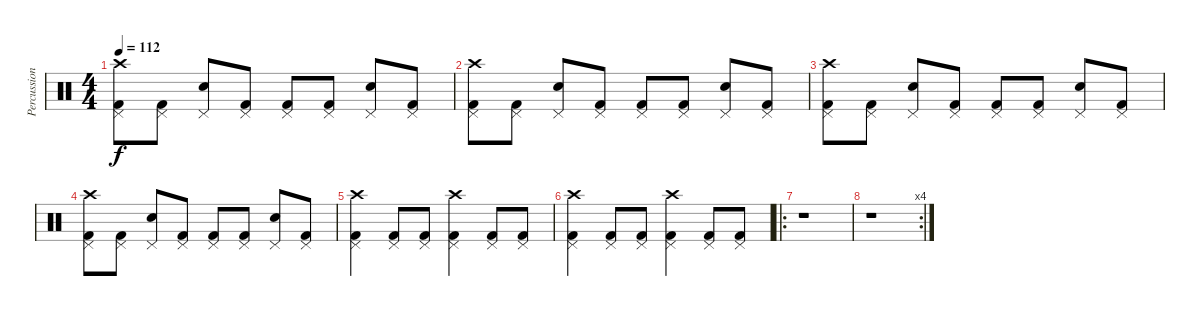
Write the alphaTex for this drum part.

\track ("Percussion" "Percussion") {instrument percussion}
\staff {score}
\articulation defaults
\ts (4 4)
\tempo 112
\clef neutral
\ks c
("Crash high (hit)" "Pedal Hi-Hat (hit)" "Kick (hit) 2").8{dy f} ("Pedal Hi-Hat (hit)" "Kick (hit) 2").8 ("Pedal Hi-Hat (hit)" "Snare (hit) 2").8 ("Pedal Hi-Hat (hit)" "Kick (hit) 2").8 ("Pedal Hi-Hat (hit)" "Kick (hit) 2").8 ("Pedal Hi-Hat (hit)" "Kick (hit) 2").8 ("Pedal Hi-Hat (hit)" "Snare (hit) 2").8 ("Pedal Hi-Hat (hit)" "Kick (hit) 2").8 |
("Crash high (hit)" "Pedal Hi-Hat (hit)" "Kick (hit) 2").8 ("Pedal Hi-Hat (hit)" "Kick (hit) 2").8 ("Pedal Hi-Hat (hit)" "Snare (hit) 2").8 ("Pedal Hi-Hat (hit)" "Kick (hit) 2").8 ("Pedal Hi-Hat (hit)" "Kick (hit) 2").8 ("Pedal Hi-Hat (hit)" "Kick (hit) 2").8 ("Pedal Hi-Hat (hit)" "Snare (hit) 2").8 ("Pedal Hi-Hat (hit)" "Kick (hit) 2").8 |
("Crash high (hit)" "Pedal Hi-Hat (hit)" "Kick (hit) 2").8 ("Pedal Hi-Hat (hit)" "Kick (hit) 2").8 ("Pedal Hi-Hat (hit)" "Snare (hit) 2").8 ("Pedal Hi-Hat (hit)" "Kick (hit) 2").8 ("Pedal Hi-Hat (hit)" "Kick (hit) 2").8 ("Pedal Hi-Hat (hit)" "Kick (hit) 2").8 ("Pedal Hi-Hat (hit)" "Snare (hit) 2").8 ("Pedal Hi-Hat (hit)" "Kick (hit) 2").8 |
("Crash high (hit)" "Pedal Hi-Hat (hit)" "Kick (hit) 2").8 ("Pedal Hi-Hat (hit)" "Kick (hit) 2").8 ("Pedal Hi-Hat (hit)" "Snare (hit) 2").8 ("Pedal Hi-Hat (hit)" "Kick (hit) 2").8 ("Pedal Hi-Hat (hit)" "Kick (hit) 2").8 ("Pedal Hi-Hat (hit)" "Kick (hit) 2").8 ("Pedal Hi-Hat (hit)" "Snare (hit) 2").8 ("Pedal Hi-Hat (hit)" "Kick (hit) 2").8 |
("Crash high (hit)" "Pedal Hi-Hat (hit)" "Kick (hit) 2").4 ("Pedal Hi-Hat (hit)" "Kick (hit) 2").8 ("Pedal Hi-Hat (hit)" "Kick (hit) 2").8 ("Crash high (hit)" "Pedal Hi-Hat (hit)" "Kick (hit) 2").4 ("Pedal Hi-Hat (hit)" "Kick (hit) 2").8 ("Pedal Hi-Hat (hit)" "Kick (hit) 2").8 |
("Crash high (hit)" "Pedal Hi-Hat (hit)" "Kick (hit) 2").4 ("Pedal Hi-Hat (hit)" "Kick (hit) 2").8 ("Pedal Hi-Hat (hit)" "Kick (hit) 2").8 ("Crash high (hit)" "Pedal Hi-Hat (hit)" "Kick (hit) 2").4 ("Pedal Hi-Hat (hit)" "Kick (hit) 2").8 ("Pedal Hi-Hat (hit)" "Kick (hit) 2").8 |
\ro
r.1 |
\rc 4
r.1
